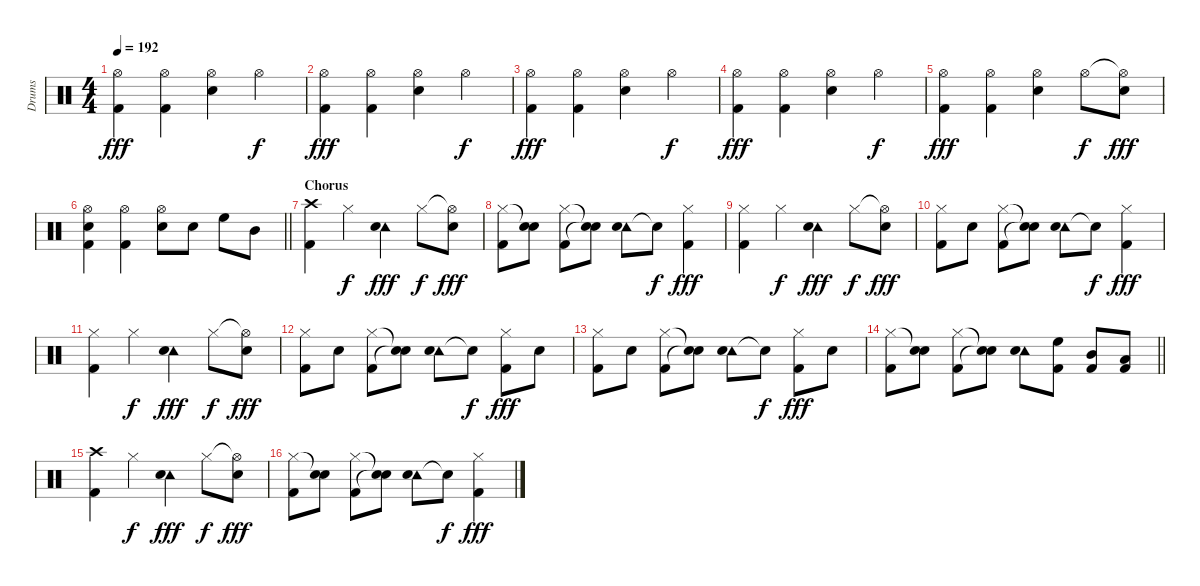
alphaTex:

\track ("Drums" "Drums") {instrument percussion}
\staff {score}
\articulation defaults
\ts (4 4)
\tempo 192
\clef neutral
\ks c
("Hi-Hat (open)" "Kick (hit) 2").4{dy fff} ("Hi-Hat (open)" "Kick (hit) 2").4 ("Hi-Hat (open)" "Snare (hit) 2").4 "Hi-Hat (open)".4{dy f} |
("Hi-Hat (open)" "Kick (hit) 2").4{dy fff} ("Hi-Hat (open)" "Kick (hit) 2").4 ("Hi-Hat (open)" "Snare (hit) 2").4 "Hi-Hat (open)".4{dy f} |
("Hi-Hat (open)" "Kick (hit) 2").4{dy fff} ("Hi-Hat (open)" "Kick (hit) 2").4 ("Hi-Hat (open)" "Snare (hit) 2").4 "Hi-Hat (open)".4{dy f} |
("Hi-Hat (open)" "Kick (hit) 2").4{dy fff} ("Hi-Hat (open)" "Kick (hit) 2").4 ("Hi-Hat (open)" "Snare (hit) 2").4 "Hi-Hat (open)".4{dy f} |
("Hi-Hat (open)" "Kick (hit) 2").4{dy fff} ("Hi-Hat (open)" "Kick (hit) 2").4 ("Hi-Hat (open)" "Snare (hit) 2").4 "Hi-Hat (open)".8{dy f} ("Hi-Hat (open)"{t} "Snare (hit) 2").8{dy fff} |
\barLineRight lightlight
("Hi-Hat (open)" "Snare (hit) 2" "Kick (hit) 2").4 ("Hi-Hat (open)" "Kick (hit) 2").4 ("Hi-Hat (open)" "Snare (hit) 2").8 "Snare (hit) 2".8 "High Floor Tom (hit)".8 "Mid Tom (hit)".8 |
\section ("" "Chorus")
("Crash high (hit)" "Kick (hit) 2").4 "Hi-Hat (closed)".4{dy f} ("Tambourine (hit)" "Snare (hit) 2").4{dy fff} "Hi-Hat (closed)".8{dy f} ("Hi-Hat (open)"{t} "Snare (hit) 2").8{dy fff} |
("Hi-Hat (closed)" "Kick (hit) 2").8 ("Snare (hit)"{t} "Snare (hit) 2").8 ("Hi-Hat (closed)" "Kick (hit) 2").8 ("Snare (hit)"{t} "Snare (hit)"{t}).8 ("Tambourine (hit)" "Snare (hit) 2").8 "Snare (hit)"{t}.8{dy f} ("Hi-Hat (closed)" "Kick (hit) 2").4{dy fff} |
("Hi-Hat (closed)" "Kick (hit) 2").4 "Hi-Hat (closed)".4{dy f} ("Tambourine (hit)" "Snare (hit) 2").4{dy fff} "Hi-Hat (closed)".8{dy f} ("Hi-Hat (open)"{t} "Snare (hit) 2").8{dy fff} |
("Hi-Hat (closed)" "Kick (hit) 2").8 "Snare (hit) 2".8 ("Hi-Hat (closed)" "Kick (hit) 2").8 ("Snare (hit)"{t} "Snare (hit)"{t}).8 ("Tambourine (hit)" "Snare (hit) 2").8 "Snare (hit)"{t}.8{dy f} ("Hi-Hat (closed)" "Kick (hit) 2").4{dy fff} |
("Hi-Hat (closed)" "Kick (hit) 2").4 "Hi-Hat (closed)".4{dy f} ("Tambourine (hit)" "Snare (hit) 2").4{dy fff} "Hi-Hat (closed)".8{dy f} ("Hi-Hat (open)"{t} "Snare (hit) 2").8{dy fff} |
("Hi-Hat (closed)" "Kick (hit) 2").8 "Snare (hit) 2".8 ("Hi-Hat (closed)" "Kick (hit) 2").8 ("Snare (hit)"{t} "Snare (hit)"{t}).8 ("Tambourine (hit)" "Snare (hit) 2").8 "Snare (hit)"{t}.8{dy f} ("Hi-Hat (closed)" "Kick (hit) 2").8{dy fff} "Snare (hit) 2".8 |
("Hi-Hat (closed)" "Kick (hit) 2").8 "Snare (hit) 2".8 ("Hi-Hat (closed)" "Kick (hit) 2").8 ("Snare (hit)"{t} "Snare (hit)"{t}).8 ("Tambourine (hit)" "Snare (hit) 2").8 "Snare (hit)"{t}.8{dy f} ("Hi-Hat (closed)" "Kick (hit) 2").8{dy fff} "Snare (hit) 2".8 |
\barLineRight lightlight
("Hi-Hat (closed)" "Kick (hit) 2").8 ("Snare (hit)"{t} "Snare (hit) 2").8 ("Hi-Hat (closed)" "Kick (hit) 2").8 ("Snare (hit)"{t} "Snare (hit)"{t}).8 ("Tambourine (hit)" "Snare (hit) 2").8 ("High Floor Tom (hit)" "Kick (hit) 2").8 ("Mid Tom (hit)" "Kick (hit) 2").8 ("Low Tom (hit)" "Kick (hit) 2").8 |
("Crash high (hit)" "Kick (hit) 2").4 "Hi-Hat (closed)".4{dy f} ("Tambourine (hit)" "Snare (hit) 2").4{dy fff} "Hi-Hat (closed)".8{dy f} ("Hi-Hat (open)"{t} "Snare (hit) 2").8{dy fff} |
("Hi-Hat (closed)" "Kick (hit) 2").8 ("Snare (hit)"{t} "Snare (hit) 2").8 ("Hi-Hat (closed)" "Kick (hit) 2").8 ("Snare (hit)"{t} "Snare (hit)"{t}).8 ("Tambourine (hit)" "Snare (hit) 2").8 "Snare (hit)"{t}.8{dy f} ("Hi-Hat (closed)" "Kick (hit) 2").4{dy fff}
